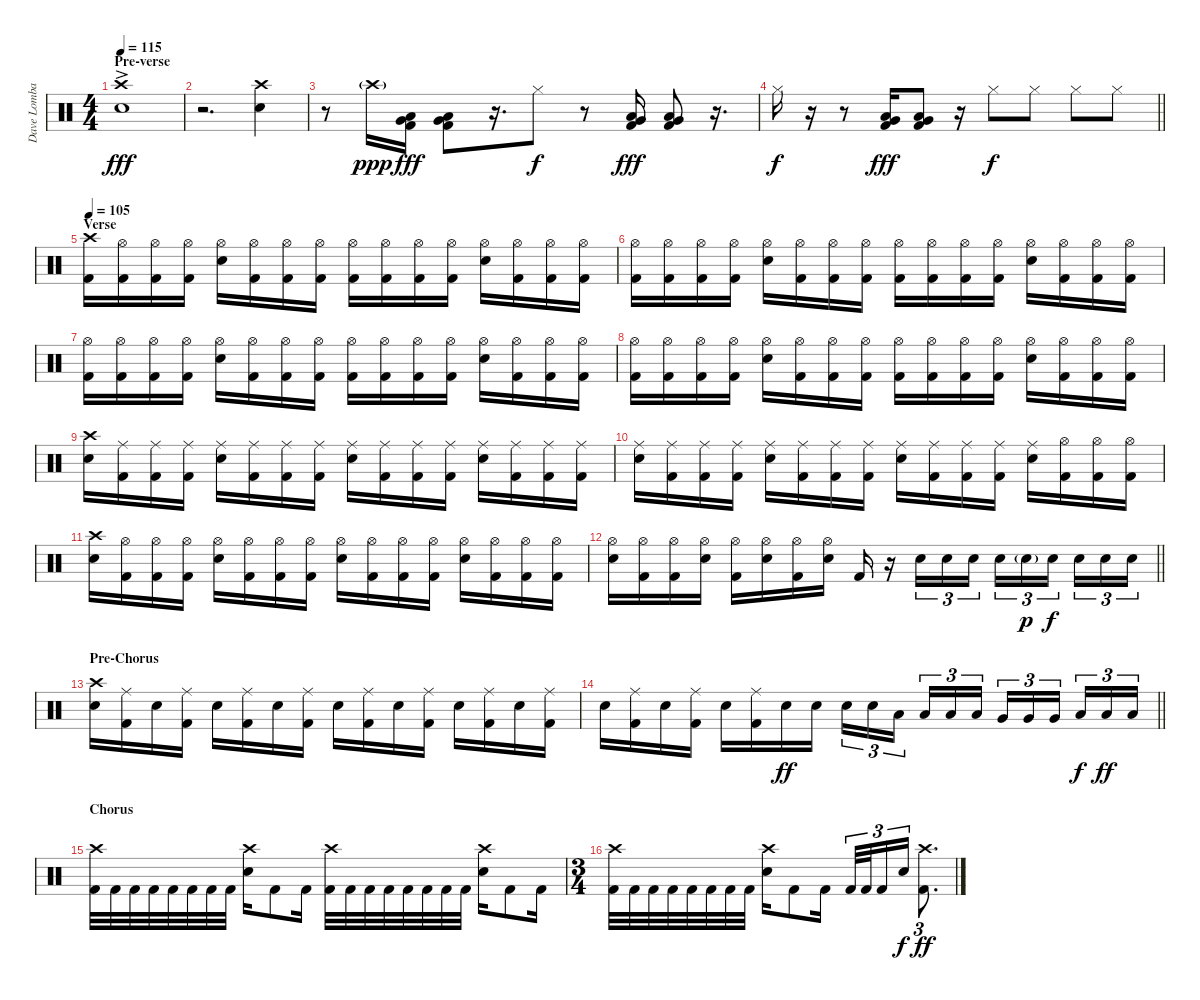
\track ("Dave Lombardo" "Dave Lomba") {instrument percussion}
\staff {score}
\articulation defaults
\ts (4 4)
\section ("" "Pre-verse")
\tempo 115
\clef neutral
\ks c
("Crash high (hit)"{ac} "Snare (hit) 2").1{dy fff} |
r.2{d} ("Crash high (hit)" "Snare (hit) 2").4 |
r.8 "Crash high (hit)"{g}.16{dy ppp} ("Low Floor Tom (hit)" "Very Low Tom (hit)" "Kick (hit) 2").16{dy fff} ("Low Floor Tom (hit)" "Very Low Tom (hit)" "Kick (hit) 2").8 r.16{d} "Hi-Hat (closed)".8{dy f} r.8 ("Low Floor Tom (hit)" "Very Low Tom (hit)" "Kick (hit) 2").16{dy fff} ("Low Floor Tom (hit)" "Very Low Tom (hit)" "Kick (hit) 2").8 r.16{d} |
\barLineRight lightlight "Hi-Hat (closed)".16{dy f}
r.16 r.8 ("Low Floor Tom (hit)" "Very Low Tom (hit)" "Kick (hit) 2").16{dy fff} ("Low Floor Tom (hit)" "Very Low Tom (hit)" "Kick (hit) 2").8 r.16 "Hi-Hat (closed)".8{dy f} "Hi-Hat (closed)".8 "Hi-Hat (closed)".8 "Hi-Hat (closed)".8 |
\section ("" "Verse")
\tempo 105
("Crash high (hit)" "Kick (hit) 2").16 ("Hi-Hat (open)" "Kick (hit) 2").16 ("Hi-Hat (open)" "Kick (hit) 2").16 ("Hi-Hat (open)" "Kick (hit) 2").16 ("Hi-Hat (open)" "Snare (hit) 2").16 ("Hi-Hat (open)" "Kick (hit) 2").16 ("Hi-Hat (open)" "Kick (hit) 2").16 ("Hi-Hat (open)" "Kick (hit) 2").16 ("Hi-Hat (open)" "Kick (hit) 2").16 ("Hi-Hat (open)" "Kick (hit) 2").16 ("Hi-Hat (open)" "Kick (hit) 2").16 ("Hi-Hat (open)" "Kick (hit) 2").16 ("Hi-Hat (open)" "Snare (hit) 2").16 ("Hi-Hat (open)" "Kick (hit) 2").16 ("Hi-Hat (open)" "Kick (hit) 2").16 ("Hi-Hat (open)" "Kick (hit) 2").16 |
("Hi-Hat (open)" "Kick (hit) 2").16 ("Hi-Hat (open)" "Kick (hit) 2").16 ("Hi-Hat (open)" "Kick (hit) 2").16 ("Hi-Hat (open)" "Kick (hit) 2").16 ("Hi-Hat (open)" "Snare (hit) 2").16 ("Hi-Hat (open)" "Kick (hit) 2").16 ("Hi-Hat (open)" "Kick (hit) 2").16 ("Hi-Hat (open)" "Kick (hit) 2").16 ("Hi-Hat (open)" "Kick (hit) 2").16 ("Hi-Hat (open)" "Kick (hit) 2").16 ("Hi-Hat (open)" "Kick (hit) 2").16 ("Hi-Hat (open)" "Kick (hit) 2").16 ("Hi-Hat (open)" "Snare (hit) 2").16 ("Hi-Hat (open)" "Kick (hit) 2").16 ("Hi-Hat (open)" "Kick (hit) 2").16 ("Hi-Hat (open)" "Kick (hit) 2").16 |
("Hi-Hat (open)" "Kick (hit) 2").16 ("Hi-Hat (open)" "Kick (hit) 2").16 ("Hi-Hat (open)" "Kick (hit) 2").16 ("Hi-Hat (open)" "Kick (hit) 2").16 ("Hi-Hat (open)" "Snare (hit) 2").16 ("Hi-Hat (open)" "Kick (hit) 2").16 ("Hi-Hat (open)" "Kick (hit) 2").16 ("Hi-Hat (open)" "Kick (hit) 2").16 ("Hi-Hat (open)" "Kick (hit) 2").16 ("Hi-Hat (open)" "Kick (hit) 2").16 ("Hi-Hat (open)" "Kick (hit) 2").16 ("Hi-Hat (open)" "Kick (hit) 2").16 ("Hi-Hat (open)" "Snare (hit) 2").16 ("Hi-Hat (open)" "Kick (hit) 2").16 ("Hi-Hat (open)" "Kick (hit) 2").16 ("Hi-Hat (open)" "Kick (hit) 2").16 |
("Hi-Hat (open)" "Kick (hit) 2").16 ("Hi-Hat (open)" "Kick (hit) 2").16 ("Hi-Hat (open)" "Kick (hit) 2").16 ("Hi-Hat (open)" "Kick (hit) 2").16 ("Hi-Hat (open)" "Snare (hit) 2").16 ("Hi-Hat (open)" "Kick (hit) 2").16 ("Hi-Hat (open)" "Kick (hit) 2").16 ("Hi-Hat (open)" "Kick (hit) 2").16 ("Hi-Hat (open)" "Kick (hit) 2").16 ("Hi-Hat (open)" "Kick (hit) 2").16 ("Hi-Hat (open)" "Kick (hit) 2").16 ("Hi-Hat (open)" "Kick (hit) 2").16 ("Hi-Hat (open)" "Snare (hit) 2").16 ("Hi-Hat (open)" "Kick (hit) 2").16 ("Hi-Hat (open)" "Kick (hit) 2").16 ("Hi-Hat (open)" "Kick (hit) 2").16 |
("Crash high (hit)" "Snare (hit) 2").16 ("Ride (middle)" "Kick (hit) 2").16 ("Ride (middle)" "Kick (hit) 2").16 ("Ride (middle)" "Kick (hit) 2").16 ("Ride (middle)" "Snare (hit) 2").16 ("Ride (middle)" "Kick (hit) 2").16 ("Ride (middle)" "Kick (hit) 2").16 ("Ride (middle)" "Kick (hit) 2").16 ("Ride (middle)" "Snare (hit) 2").16 ("Ride (middle)" "Kick (hit) 2").16 ("Ride (middle)" "Kick (hit) 2").16 ("Ride (middle)" "Kick (hit) 2").16 ("Ride (middle)" "Snare (hit) 2").16 ("Ride (middle)" "Kick (hit) 2").16 ("Ride (middle)" "Kick (hit) 2").16 ("Ride (middle)" "Kick (hit) 2").16 |
("Ride (middle)" "Snare (hit) 2").16 ("Ride (middle)" "Kick (hit) 2").16 ("Ride (middle)" "Kick (hit) 2").16 ("Ride (middle)" "Kick (hit) 2").16 ("Ride (middle)" "Snare (hit) 2").16 ("Ride (middle)" "Kick (hit) 2").16 ("Ride (middle)" "Kick (hit) 2").16 ("Ride (middle)" "Kick (hit) 2").16 ("Ride (middle)" "Snare (hit) 2").16 ("Ride (middle)" "Kick (hit) 2").16 ("Ride (middle)" "Kick (hit) 2").16 ("Ride (middle)" "Kick (hit) 2").16 ("Ride (middle)" "Snare (hit) 2").16 ("Hi-Hat (open)" "Kick (hit) 2").16 ("Hi-Hat (open)" "Kick (hit) 2").16 ("Hi-Hat (open)" "Kick (hit) 2").16 |
("Crash high (hit)" "Snare (hit) 2").16 ("Hi-Hat (open)" "Kick (hit) 2").16 ("Hi-Hat (open)" "Kick (hit) 2").16 ("Hi-Hat (open)" "Kick (hit) 2").16 ("Hi-Hat (open)" "Snare (hit) 2").16 ("Hi-Hat (open)" "Kick (hit) 2").16 ("Hi-Hat (open)" "Kick (hit) 2").16 ("Hi-Hat (open)" "Kick (hit) 2").16 ("Hi-Hat (open)" "Snare (hit) 2").16 ("Hi-Hat (open)" "Kick (hit) 2").16 ("Hi-Hat (open)" "Kick (hit) 2").16 ("Hi-Hat (open)" "Kick (hit) 2").16 ("Hi-Hat (open)" "Snare (hit) 2").16 ("Hi-Hat (open)" "Kick (hit) 2").16 ("Hi-Hat (open)" "Kick (hit) 2").16 ("Hi-Hat (open)" "Kick (hit) 2").16 |
\barLineRight lightlight
("Hi-Hat (open)" "Snare (hit) 2").16 ("Hi-Hat (open)" "Kick (hit) 2").16 ("Hi-Hat (open)" "Kick (hit) 2").16 ("Hi-Hat (open)" "Snare (hit) 2").16 ("Hi-Hat (open)" "Kick (hit) 2").16 ("Hi-Hat (open)" "Snare (hit) 2").16 ("Hi-Hat (open)" "Kick (hit) 2").16 ("Hi-Hat (open)" "Snare (hit) 2").16 "Kick (hit) 2".16 r.16 "Snare (hit) 2".16{tu (3 2)} "Snare (hit) 2".16{tu (3 2)} "Snare (hit) 2".16{tu (3 2)} "Snare (hit) 2".16{tu (3 2)} "Snare (hit) 2"{g}.16{tu (3 2) dy p} "Snare (hit) 2".16{tu (3 2) dy f beam splitsecondary} "Snare (hit) 2".16{tu (3 2)} "Snare (hit) 2".16{tu (3 2)} "Snare (hit) 2".16{tu (3 2)} |
\section ("" "Pre-Chorus")
("Crash high (hit)" "Snare (hit) 2").16 ("Ride (middle)" "Kick (hit) 2").16 "Snare (hit) 2".16 ("Ride (middle)" "Kick (hit) 2").16 "Snare (hit) 2".16 ("Ride (middle)" "Kick (hit) 2").16 "Snare (hit) 2".16 ("Ride (middle)" "Kick (hit) 2").16 "Snare (hit) 2".16 ("Ride (middle)" "Kick (hit) 2").16 "Snare (hit) 2".16 ("Ride (middle)" "Kick (hit) 2").16 "Snare (hit) 2".16 ("Ride (middle)" "Kick (hit) 2").16 "Snare (hit) 2".16 ("Ride (middle)" "Kick (hit) 2").16 |
\barLineRight lightlight "Snare (hit) 2".16
("Ride (middle)" "Kick (hit) 2").16 "Snare (hit) 2".16 ("Ride (middle)" "Kick (hit) 2").16 "Snare (hit) 2".16 ("Ride (middle)" "Kick (hit) 2").16 "Snare (hit) 2".16{dy ff} "Snare (hit) 2".16 "Snare (hit) 2".16{tu (3 2)} "Snare (hit) 2".16{tu (3 2)} "Low Tom (hit)".16{tu (3 2) beam splitsecondary} "Low Tom (hit)".16{tu (3 2)} "Low Tom (hit)".16{tu (3 2)} "Low Tom (hit)".16{tu (3 2)} "Very Low Tom (hit)".16{tu (3 2)} "Very Low Tom (hit)".16{tu (3 2)} "Very Low Tom (hit)".16{tu (3 2) beam splitsecondary} "Low Floor Tom (hit)".16{tu (3 2) dy f} "Low Floor Tom (hit)".16{tu (3 2) dy ff} "Low Floor Tom (hit)".16{tu (3 2)} |
\section ("" "Chorus")
("Crash high (hit)" "Kick (hit) 2").32 "Kick (hit) 2".32 "Kick (hit) 2".32 "Kick (hit) 2".32 "Kick (hit) 2".32 "Kick (hit) 2".32 "Kick (hit) 2".32 "Kick (hit) 2".32 ("Crash high (hit)" "Snare (hit) 2").16 "Kick (hit) 2".8 "Kick (hit) 2".16 ("Crash high (hit)" "Kick (hit) 2").32 "Kick (hit) 2".32 "Kick (hit) 2".32 "Kick (hit) 2".32 "Kick (hit) 2".32 "Kick (hit) 2".32 "Kick (hit) 2".32 "Kick (hit) 2".32 ("Crash high (hit)" "Snare (hit) 2").16 "Kick (hit) 2".8 "Kick (hit) 2".16 |
\ts (3 4)
("Crash high (hit)" "Kick (hit) 2").32 "Kick (hit) 2".32 "Kick (hit) 2".32 "Kick (hit) 2".32 "Kick (hit) 2".32 "Kick (hit) 2".32 "Kick (hit) 2".32 "Kick (hit) 2".32 ("Crash high (hit)" "Snare (hit) 2").16 "Kick (hit) 2".8 "Kick (hit) 2".16 "Kick (hit) 2".32{tu (3 2)} "Kick (hit) 2".32{tu (3 2)} "Kick (hit) 2".16{tu (3 2)} "Snare (hit) 2".16{tu (3 2) dy f} ("Crash high (hit)" "Kick (hit) 2").8{d tu (3 2) dy ff}
